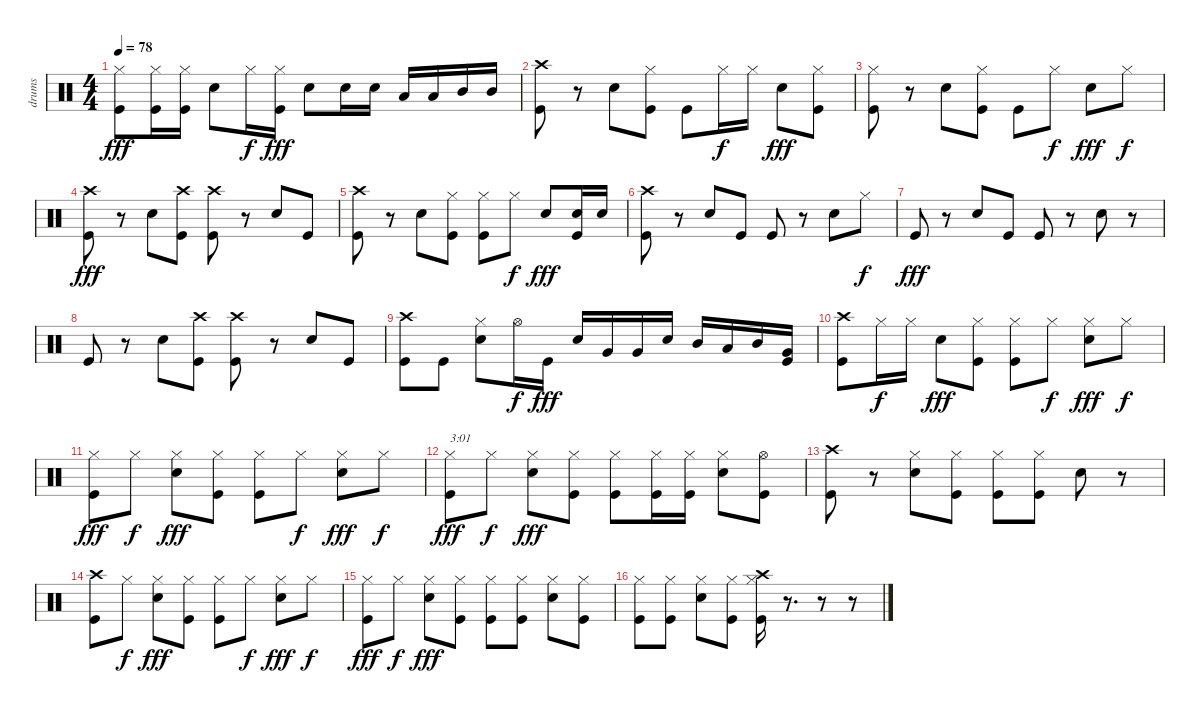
\track ("drums" "drums") {instrument percussion}
\staff {score}
\articulation defaults
\ts (4 4)
\tempo 78
\clef neutral
\ks c
("Hi-Hat (closed)" "Kick (hit)").8{txt " " dy fff} ("Hi-Hat (closed)" "Kick (hit)").16 ("Hi-Hat (closed)" "Kick (hit)").16 "Electric Snare (hit)".8 "Hi-Hat (closed)".16{dy f} ("Hi-Hat (closed)" "Kick (hit)").16{dy fff} "Electric Snare (hit)".8 "Electric Snare (hit)".16 "Electric Snare (hit)".16 "Low Tom (hit)".16 "Low Tom (hit)".16 "Mid Tom (hit)".16 "Mid Tom (hit)".16 |
("Crash high (hit)" "Kick (hit)").8{txt " "} r.8 "Electric Snare (hit)".8 ("Hi-Hat (closed)" "Kick (hit)").8 "Kick (hit)".8 "Hi-Hat (closed)".16{dy f} "Hi-Hat (closed)".16 "Electric Snare (hit)".8{dy fff} ("Hi-Hat (closed)" "Kick (hit)").8 |
("Hi-Hat (closed)" "Kick (hit)").8{txt " "} r.8 "Electric Snare (hit)".8 ("Hi-Hat (closed)" "Kick (hit)").8 "Kick (hit)".8 "Hi-Hat (closed)".8{dy f} "Electric Snare (hit)".8{dy fff} "Hi-Hat (closed)".8{dy f} |
("Crash high (hit)" "Kick (hit)").8{txt " " dy fff} r.8 "Electric Snare (hit)".8 ("Crash high (hit)" "Kick (hit)").8 ("Crash high (hit)" "Kick (hit)").8 r.8 "Electric Snare (hit)".8 "Kick (hit)".8 |
("Crash high (hit)" "Kick (hit)").8{txt " "} r.8 "Electric Snare (hit)".8 ("Hi-Hat (closed)" "Kick (hit)").8 ("Hi-Hat (closed)" "Kick (hit)").8 "Hi-Hat (closed)".8{dy f} "Electric Snare (hit)".8{dy fff} ("Electric Snare (hit)" "Kick (hit)").16 "Electric Snare (hit)".16 |
("Crash high (hit)" "Kick (hit)").8{txt " "} r.8 "Electric Snare (hit)".8 "Kick (hit)".8 "Kick (hit)".8 r.8 "Electric Snare (hit)".8 "Hi-Hat (closed)".8{dy f} |
"Kick (hit)".8{txt " " dy fff} r.8 "Electric Snare (hit)".8 "Kick (hit)".8 "Kick (hit)".8 r.8 "Electric Snare (hit)".8 r.8 |
"Kick (hit)".8{txt " "} r.8 "Electric Snare (hit)".8 ("Crash high (hit)" "Kick (hit)").8 ("Crash high (hit)" "Kick (hit)").8 r.8 "Electric Snare (hit)".8 "Kick (hit)".8 |
("Crash high (hit)" "Kick (hit)").8{txt " "} "Kick (hit)".8 ("Electric Snare (hit)" "Hi-Hat (closed)").8 "Hi-Hat (open)".16{dy f} "Kick (hit)".16{dy fff} "Electric Snare (hit)".16 "Very Low Tom (hit)".16 "Very Low Tom (hit)".16 "Electric Snare (hit)".16 "Mid Tom (hit)".16 "Low Tom (hit)".16 "Mid Tom (hit)".16 ("Very Low Tom (hit)" "Kick (hit)").16 |
("Crash high (hit)" "Kick (hit)").8{txt " "} "Hi-Hat (closed)".16{dy f} "Hi-Hat (closed)".16 "Electric Snare (hit)".8{dy fff} ("Hi-Hat (closed)" "Kick (hit)").8 ("Hi-Hat (closed)" "Kick (hit)").8 "Hi-Hat (closed)".8{dy f} ("Electric Snare (hit)" "Hi-Hat (closed)").8{dy fff} "Hi-Hat (closed)".8{dy f} |
("Hi-Hat (closed)" "Kick (hit)").8{txt " " dy fff} "Hi-Hat (closed)".8{dy f} ("Electric Snare (hit)" "Hi-Hat (closed)").8{dy fff} ("Hi-Hat (closed)" "Kick (hit)").8 ("Hi-Hat (closed)" "Kick (hit)").8 "Hi-Hat (closed)".8{dy f} ("Electric Snare (hit)" "Hi-Hat (closed)").8{dy fff} "Hi-Hat (closed)".8{dy f} |
("Hi-Hat (closed)" "Kick (hit)").8{txt "3:01" dy fff} "Hi-Hat (closed)".8{dy f} ("Electric Snare (hit)" "Hi-Hat (closed)").8{dy fff} ("Hi-Hat (closed)" "Kick (hit)").8 ("Hi-Hat (closed)" "Kick (hit)").8 ("Hi-Hat (closed)" "Kick (hit)").16 ("Hi-Hat (closed)" "Kick (hit)").16 ("Electric Snare (hit)" "Hi-Hat (closed)").8 ("Hi-Hat (open)" "Kick (hit)").8 |
("Crash high (hit)" "Kick (hit)").8{txt " "} r.8 ("Electric Snare (hit)" "Hi-Hat (closed)").8 ("Hi-Hat (closed)" "Kick (hit)").8 ("Hi-Hat (closed)" "Kick (hit)").8 ("Hi-Hat (closed)" "Kick (hit)").8 "Electric Snare (hit)".8 r.8 |
("Crash high (hit)" "Kick (hit)").8{txt " "} "Hi-Hat (closed)".8{dy f} ("Electric Snare (hit)" "Hi-Hat (closed)").8{dy fff} ("Hi-Hat (closed)" "Kick (hit)").8 ("Hi-Hat (closed)" "Kick (hit)").8 "Hi-Hat (closed)".8{dy f} ("Electric Snare (hit)" "Hi-Hat (closed)").8{dy fff} "Hi-Hat (closed)".8{dy f} |
("Hi-Hat (closed)" "Kick (hit)").8{txt " " dy fff} "Hi-Hat (closed)".8{dy f} ("Electric Snare (hit)" "Hi-Hat (closed)").8{dy fff} ("Hi-Hat (closed)" "Kick (hit)").8 ("Hi-Hat (closed)" "Kick (hit)").8 ("Hi-Hat (closed)" "Kick (hit)").8 ("Electric Snare (hit)" "Hi-Hat (closed)").8 ("Hi-Hat (closed)" "Kick (hit)").8 |
("Hi-Hat (closed)" "Kick (hit)").8{txt " "} ("Hi-Hat (closed)" "Kick (hit)").8 ("Electric Snare (hit)" "Hi-Hat (closed)").8 ("Hi-Hat (closed)" "Kick (hit)").8 ("Crash high (hit)" "Hi-Hat (closed)" "Kick (hit)").16 r.8{d} r.8 r.8
